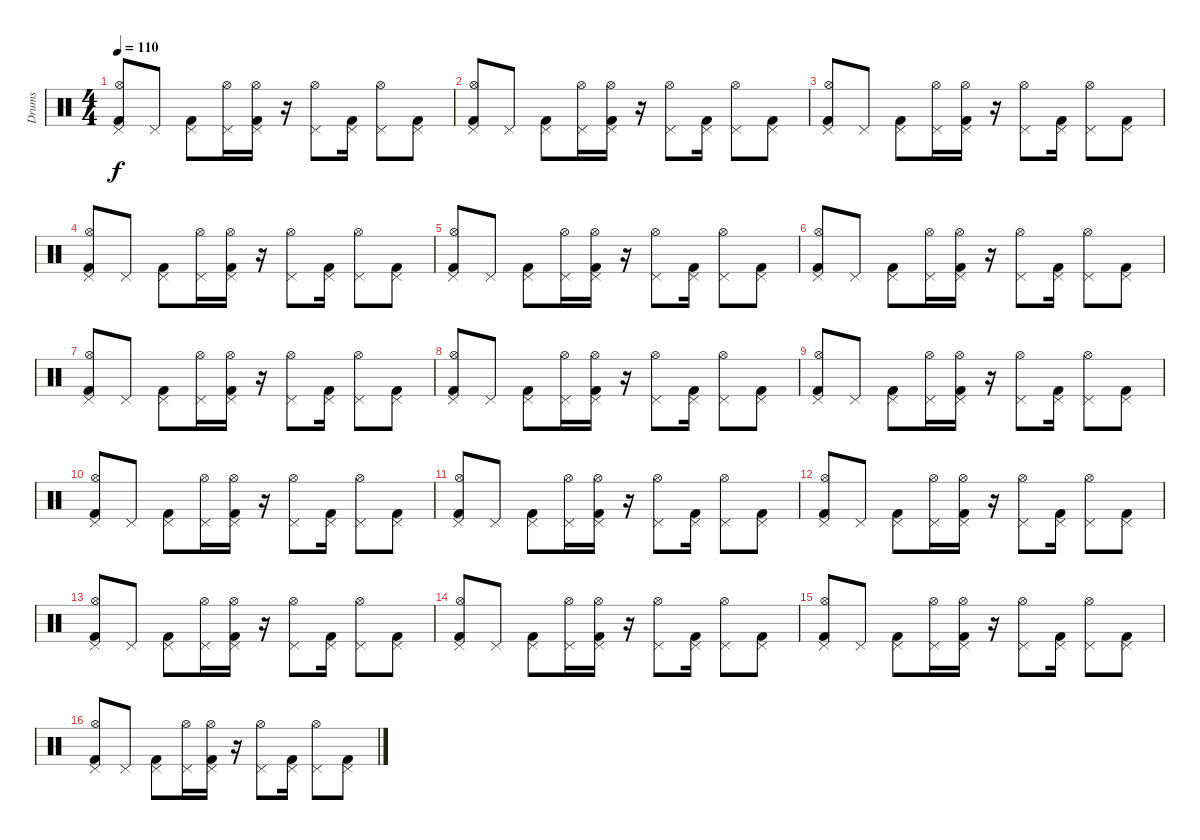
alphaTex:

\track ("Drums" "Drums") {instrument percussion}
\staff {score}
\articulation defaults
\ts (4 4)
\tempo 110
\clef neutral
\ks c
("Kick (hit) 2" "Hi-Hat (open)" "Pedal Hi-Hat (hit)").8{dy f} "Pedal Hi-Hat (hit)".8 ("Kick (hit) 2" "Pedal Hi-Hat (hit)").8 ("Hi-Hat (open)" "Pedal Hi-Hat (hit)").16 ("Kick (hit) 2" "Hi-Hat (open)" "Pedal Hi-Hat (hit)").16 r.16 ("Hi-Hat (open)" "Pedal Hi-Hat (hit)").8 ("Kick (hit) 2" "Pedal Hi-Hat (hit)").16 ("Hi-Hat (open)" "Pedal Hi-Hat (hit)").8 ("Kick (hit) 2" "Pedal Hi-Hat (hit)").8 |
("Kick (hit) 2" "Hi-Hat (open)" "Pedal Hi-Hat (hit)").8 "Pedal Hi-Hat (hit)".8 ("Kick (hit) 2" "Pedal Hi-Hat (hit)").8 ("Hi-Hat (open)" "Pedal Hi-Hat (hit)").16 ("Kick (hit) 2" "Hi-Hat (open)" "Pedal Hi-Hat (hit)").16 r.16 ("Hi-Hat (open)" "Pedal Hi-Hat (hit)").8 ("Kick (hit) 2" "Pedal Hi-Hat (hit)").16 ("Hi-Hat (open)" "Pedal Hi-Hat (hit)").8 ("Kick (hit) 2" "Pedal Hi-Hat (hit)").8 |
("Kick (hit) 2" "Hi-Hat (open)" "Pedal Hi-Hat (hit)").8 "Pedal Hi-Hat (hit)".8 ("Kick (hit) 2" "Pedal Hi-Hat (hit)").8 ("Hi-Hat (open)" "Pedal Hi-Hat (hit)").16 ("Kick (hit) 2" "Hi-Hat (open)" "Pedal Hi-Hat (hit)").16 r.16 ("Hi-Hat (open)" "Pedal Hi-Hat (hit)").8 ("Kick (hit) 2" "Pedal Hi-Hat (hit)").16 ("Hi-Hat (open)" "Pedal Hi-Hat (hit)").8 ("Kick (hit) 2" "Pedal Hi-Hat (hit)").8 |
("Kick (hit) 2" "Hi-Hat (open)" "Pedal Hi-Hat (hit)").8 "Pedal Hi-Hat (hit)".8 ("Kick (hit) 2" "Pedal Hi-Hat (hit)").8 ("Hi-Hat (open)" "Pedal Hi-Hat (hit)").16 ("Kick (hit) 2" "Hi-Hat (open)" "Pedal Hi-Hat (hit)").16 r.16 ("Hi-Hat (open)" "Pedal Hi-Hat (hit)").8 ("Kick (hit) 2" "Pedal Hi-Hat (hit)").16 ("Hi-Hat (open)" "Pedal Hi-Hat (hit)").8 ("Kick (hit) 2" "Pedal Hi-Hat (hit)").8 |
("Kick (hit) 2" "Hi-Hat (open)" "Pedal Hi-Hat (hit)").8 "Pedal Hi-Hat (hit)".8 ("Kick (hit) 2" "Pedal Hi-Hat (hit)").8 ("Hi-Hat (open)" "Pedal Hi-Hat (hit)").16 ("Kick (hit) 2" "Hi-Hat (open)" "Pedal Hi-Hat (hit)").16 r.16 ("Hi-Hat (open)" "Pedal Hi-Hat (hit)").8 ("Kick (hit) 2" "Pedal Hi-Hat (hit)").16 ("Hi-Hat (open)" "Pedal Hi-Hat (hit)").8 ("Kick (hit) 2" "Pedal Hi-Hat (hit)").8 |
("Kick (hit) 2" "Hi-Hat (open)" "Pedal Hi-Hat (hit)").8 "Pedal Hi-Hat (hit)".8 ("Kick (hit) 2" "Pedal Hi-Hat (hit)").8 ("Hi-Hat (open)" "Pedal Hi-Hat (hit)").16 ("Kick (hit) 2" "Hi-Hat (open)" "Pedal Hi-Hat (hit)").16 r.16 ("Hi-Hat (open)" "Pedal Hi-Hat (hit)").8 ("Kick (hit) 2" "Pedal Hi-Hat (hit)").16 ("Hi-Hat (open)" "Pedal Hi-Hat (hit)").8 ("Kick (hit) 2" "Pedal Hi-Hat (hit)").8 |
("Kick (hit) 2" "Hi-Hat (open)" "Pedal Hi-Hat (hit)").8 "Pedal Hi-Hat (hit)".8 ("Kick (hit) 2" "Pedal Hi-Hat (hit)").8 ("Hi-Hat (open)" "Pedal Hi-Hat (hit)").16 ("Kick (hit) 2" "Hi-Hat (open)" "Pedal Hi-Hat (hit)").16 r.16 ("Hi-Hat (open)" "Pedal Hi-Hat (hit)").8 ("Kick (hit) 2" "Pedal Hi-Hat (hit)").16 ("Hi-Hat (open)" "Pedal Hi-Hat (hit)").8 ("Kick (hit) 2" "Pedal Hi-Hat (hit)").8 |
("Kick (hit) 2" "Hi-Hat (open)" "Pedal Hi-Hat (hit)").8 "Pedal Hi-Hat (hit)".8 ("Kick (hit) 2" "Pedal Hi-Hat (hit)").8 ("Hi-Hat (open)" "Pedal Hi-Hat (hit)").16 ("Kick (hit) 2" "Hi-Hat (open)" "Pedal Hi-Hat (hit)").16 r.16 ("Hi-Hat (open)" "Pedal Hi-Hat (hit)").8 ("Kick (hit) 2" "Pedal Hi-Hat (hit)").16 ("Hi-Hat (open)" "Pedal Hi-Hat (hit)").8 ("Kick (hit) 2" "Pedal Hi-Hat (hit)").8 |
("Kick (hit) 2" "Hi-Hat (open)" "Pedal Hi-Hat (hit)").8 "Pedal Hi-Hat (hit)".8 ("Kick (hit) 2" "Pedal Hi-Hat (hit)").8 ("Hi-Hat (open)" "Pedal Hi-Hat (hit)").16 ("Kick (hit) 2" "Hi-Hat (open)" "Pedal Hi-Hat (hit)").16 r.16 ("Hi-Hat (open)" "Pedal Hi-Hat (hit)").8 ("Kick (hit) 2" "Pedal Hi-Hat (hit)").16 ("Hi-Hat (open)" "Pedal Hi-Hat (hit)").8 ("Kick (hit) 2" "Pedal Hi-Hat (hit)").8 |
("Kick (hit) 2" "Hi-Hat (open)" "Pedal Hi-Hat (hit)").8 "Pedal Hi-Hat (hit)".8 ("Kick (hit) 2" "Pedal Hi-Hat (hit)").8 ("Hi-Hat (open)" "Pedal Hi-Hat (hit)").16 ("Kick (hit) 2" "Hi-Hat (open)" "Pedal Hi-Hat (hit)").16 r.16 ("Hi-Hat (open)" "Pedal Hi-Hat (hit)").8 ("Kick (hit) 2" "Pedal Hi-Hat (hit)").16 ("Hi-Hat (open)" "Pedal Hi-Hat (hit)").8 ("Kick (hit) 2" "Pedal Hi-Hat (hit)").8 |
("Kick (hit) 2" "Hi-Hat (open)" "Pedal Hi-Hat (hit)").8 "Pedal Hi-Hat (hit)".8 ("Kick (hit) 2" "Pedal Hi-Hat (hit)").8 ("Hi-Hat (open)" "Pedal Hi-Hat (hit)").16 ("Kick (hit) 2" "Hi-Hat (open)" "Pedal Hi-Hat (hit)").16 r.16 ("Hi-Hat (open)" "Pedal Hi-Hat (hit)").8 ("Kick (hit) 2" "Pedal Hi-Hat (hit)").16 ("Hi-Hat (open)" "Pedal Hi-Hat (hit)").8 ("Kick (hit) 2" "Pedal Hi-Hat (hit)").8 |
("Kick (hit) 2" "Hi-Hat (open)" "Pedal Hi-Hat (hit)").8 "Pedal Hi-Hat (hit)".8 ("Kick (hit) 2" "Pedal Hi-Hat (hit)").8 ("Hi-Hat (open)" "Pedal Hi-Hat (hit)").16 ("Kick (hit) 2" "Hi-Hat (open)" "Pedal Hi-Hat (hit)").16 r.16 ("Hi-Hat (open)" "Pedal Hi-Hat (hit)").8 ("Kick (hit) 2" "Pedal Hi-Hat (hit)").16 ("Hi-Hat (open)" "Pedal Hi-Hat (hit)").8 ("Kick (hit) 2" "Pedal Hi-Hat (hit)").8 |
("Kick (hit) 2" "Hi-Hat (open)" "Pedal Hi-Hat (hit)").8 "Pedal Hi-Hat (hit)".8 ("Kick (hit) 2" "Pedal Hi-Hat (hit)").8 ("Hi-Hat (open)" "Pedal Hi-Hat (hit)").16 ("Kick (hit) 2" "Hi-Hat (open)" "Pedal Hi-Hat (hit)").16 r.16 ("Hi-Hat (open)" "Pedal Hi-Hat (hit)").8 ("Kick (hit) 2" "Pedal Hi-Hat (hit)").16 ("Hi-Hat (open)" "Pedal Hi-Hat (hit)").8 ("Kick (hit) 2" "Pedal Hi-Hat (hit)").8 |
("Kick (hit) 2" "Hi-Hat (open)" "Pedal Hi-Hat (hit)").8 "Pedal Hi-Hat (hit)".8 ("Kick (hit) 2" "Pedal Hi-Hat (hit)").8 ("Hi-Hat (open)" "Pedal Hi-Hat (hit)").16 ("Kick (hit) 2" "Hi-Hat (open)" "Pedal Hi-Hat (hit)").16 r.16 ("Hi-Hat (open)" "Pedal Hi-Hat (hit)").8 ("Kick (hit) 2" "Pedal Hi-Hat (hit)").16 ("Hi-Hat (open)" "Pedal Hi-Hat (hit)").8 ("Kick (hit) 2" "Pedal Hi-Hat (hit)").8 |
("Kick (hit) 2" "Hi-Hat (open)" "Pedal Hi-Hat (hit)").8 "Pedal Hi-Hat (hit)".8 ("Kick (hit) 2" "Pedal Hi-Hat (hit)").8 ("Hi-Hat (open)" "Pedal Hi-Hat (hit)").16 ("Kick (hit) 2" "Hi-Hat (open)" "Pedal Hi-Hat (hit)").16 r.16 ("Hi-Hat (open)" "Pedal Hi-Hat (hit)").8 ("Kick (hit) 2" "Pedal Hi-Hat (hit)").16 ("Hi-Hat (open)" "Pedal Hi-Hat (hit)").8 ("Kick (hit) 2" "Pedal Hi-Hat (hit)").8 |
("Kick (hit) 2" "Hi-Hat (open)" "Pedal Hi-Hat (hit)").8 "Pedal Hi-Hat (hit)".8 ("Kick (hit) 2" "Pedal Hi-Hat (hit)").8 ("Hi-Hat (open)" "Pedal Hi-Hat (hit)").16 ("Kick (hit) 2" "Hi-Hat (open)" "Pedal Hi-Hat (hit)").16 r.16 ("Hi-Hat (open)" "Pedal Hi-Hat (hit)").8 ("Kick (hit) 2" "Pedal Hi-Hat (hit)").16 ("Hi-Hat (open)" "Pedal Hi-Hat (hit)").8 ("Kick (hit) 2" "Pedal Hi-Hat (hit)").8
